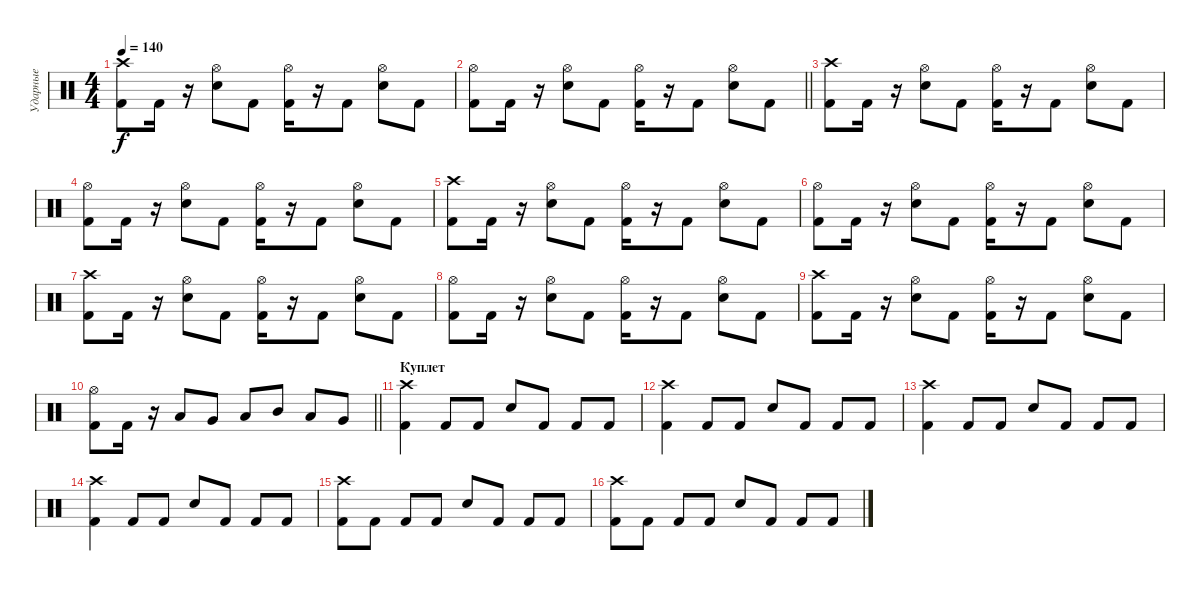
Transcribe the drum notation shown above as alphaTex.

\track ("Ударные" "Ударные") {instrument percussion}
\staff {score}
\articulation defaults
\ts (4 4)
\tempo 140
\clef neutral
\ks c
("Crash high (hit)" "Kick (hit) 2").8{dy f} "Kick (hit) 2".16 r.16 ("Hi-Hat (open)" "Electric Snare (hit)").8 "Kick (hit) 2".8 ("Hi-Hat (open)" "Kick (hit) 2").16 r.16 "Kick (hit) 2".8 ("Hi-Hat (open)" "Electric Snare (hit)").8 "Kick (hit) 2".8 |
\barLineRight lightlight
("Hi-Hat (open)" "Kick (hit) 2").8 "Kick (hit) 2".16 r.16 ("Hi-Hat (open)" "Electric Snare (hit)").8 "Kick (hit) 2".8 ("Hi-Hat (open)" "Kick (hit) 2").16 r.16 "Kick (hit) 2".8 ("Hi-Hat (open)" "Electric Snare (hit)").8 "Kick (hit) 2".8 |
("Crash high (hit)" "Kick (hit) 2").8 "Kick (hit) 2".16 r.16 ("Hi-Hat (open)" "Electric Snare (hit)").8 "Kick (hit) 2".8 ("Hi-Hat (open)" "Kick (hit) 2").16 r.16 "Kick (hit) 2".8 ("Hi-Hat (open)" "Electric Snare (hit)").8 "Kick (hit) 2".8 |
("Hi-Hat (open)" "Kick (hit) 2").8 "Kick (hit) 2".16 r.16 ("Hi-Hat (open)" "Electric Snare (hit)").8 "Kick (hit) 2".8 ("Hi-Hat (open)" "Kick (hit) 2").16 r.16 "Kick (hit) 2".8 ("Hi-Hat (open)" "Electric Snare (hit)").8 "Kick (hit) 2".8 |
("Crash high (hit)" "Kick (hit) 2").8 "Kick (hit) 2".16 r.16 ("Hi-Hat (open)" "Electric Snare (hit)").8 "Kick (hit) 2".8 ("Hi-Hat (open)" "Kick (hit) 2").16 r.16 "Kick (hit) 2".8 ("Hi-Hat (open)" "Electric Snare (hit)").8 "Kick (hit) 2".8 |
("Hi-Hat (open)" "Kick (hit) 2").8 "Kick (hit) 2".16 r.16 ("Hi-Hat (open)" "Electric Snare (hit)").8 "Kick (hit) 2".8 ("Hi-Hat (open)" "Kick (hit) 2").16 r.16 "Kick (hit) 2".8 ("Hi-Hat (open)" "Electric Snare (hit)").8 "Kick (hit) 2".8 |
("Crash high (hit)" "Kick (hit) 2").8 "Kick (hit) 2".16 r.16 ("Hi-Hat (open)" "Electric Snare (hit)").8 "Kick (hit) 2".8 ("Hi-Hat (open)" "Kick (hit) 2").16 r.16 "Kick (hit) 2".8 ("Hi-Hat (open)" "Electric Snare (hit)").8 "Kick (hit) 2".8 |
("Hi-Hat (open)" "Kick (hit) 2").8 "Kick (hit) 2".16 r.16 ("Hi-Hat (open)" "Electric Snare (hit)").8 "Kick (hit) 2".8 ("Hi-Hat (open)" "Kick (hit) 2").16 r.16 "Kick (hit) 2".8 ("Hi-Hat (open)" "Electric Snare (hit)").8 "Kick (hit) 2".8 |
("Crash high (hit)" "Kick (hit) 2").8 "Kick (hit) 2".16 r.16 ("Hi-Hat (open)" "Electric Snare (hit)").8 "Kick (hit) 2".8 ("Hi-Hat (open)" "Kick (hit) 2").16 r.16 "Kick (hit) 2".8 ("Hi-Hat (open)" "Electric Snare (hit)").8 "Kick (hit) 2".8 |
\barLineRight lightlight
("Hi-Hat (open)" "Kick (hit) 2").8 "Kick (hit) 2".16 r.16 "Low Tom (hit)".8 "Very Low Tom (hit)".8 "Low Floor Tom (hit)".8 "Mid Tom (hit)".8 "Low Tom (hit)".8 "Very Low Tom (hit)".8 |
\section ("" "Куплет")
("Crash high (hit)" "Kick (hit) 2").4 "Kick (hit) 2".8 "Kick (hit) 2".8 "Electric Snare (hit)".8 "Kick (hit) 2".8 "Kick (hit) 2".8 "Kick (hit) 2".8 |
("Crash high (hit)" "Kick (hit) 2").4 "Kick (hit) 2".8 "Kick (hit) 2".8 "Electric Snare (hit)".8 "Kick (hit) 2".8 "Kick (hit) 2".8 "Kick (hit) 2".8 |
("Crash high (hit)" "Kick (hit) 2").4 "Kick (hit) 2".8 "Kick (hit) 2".8 "Electric Snare (hit)".8 "Kick (hit) 2".8 "Kick (hit) 2".8 "Kick (hit) 2".8 |
("Crash high (hit)" "Kick (hit) 2").4 "Kick (hit) 2".8 "Kick (hit) 2".8 "Electric Snare (hit)".8 "Kick (hit) 2".8 "Kick (hit) 2".8 "Kick (hit) 2".8 |
("Crash high (hit)" "Kick (hit) 2").8 "Kick (hit) 2".8 "Kick (hit) 2".8 "Kick (hit) 2".8 "Electric Snare (hit)".8 "Kick (hit) 2".8 "Kick (hit) 2".8 "Kick (hit) 2".8 |
("Crash high (hit)" "Kick (hit) 2").8 "Kick (hit) 2".8 "Kick (hit) 2".8 "Kick (hit) 2".8 "Electric Snare (hit)".8 "Kick (hit) 2".8 "Kick (hit) 2".8 "Kick (hit) 2".8
